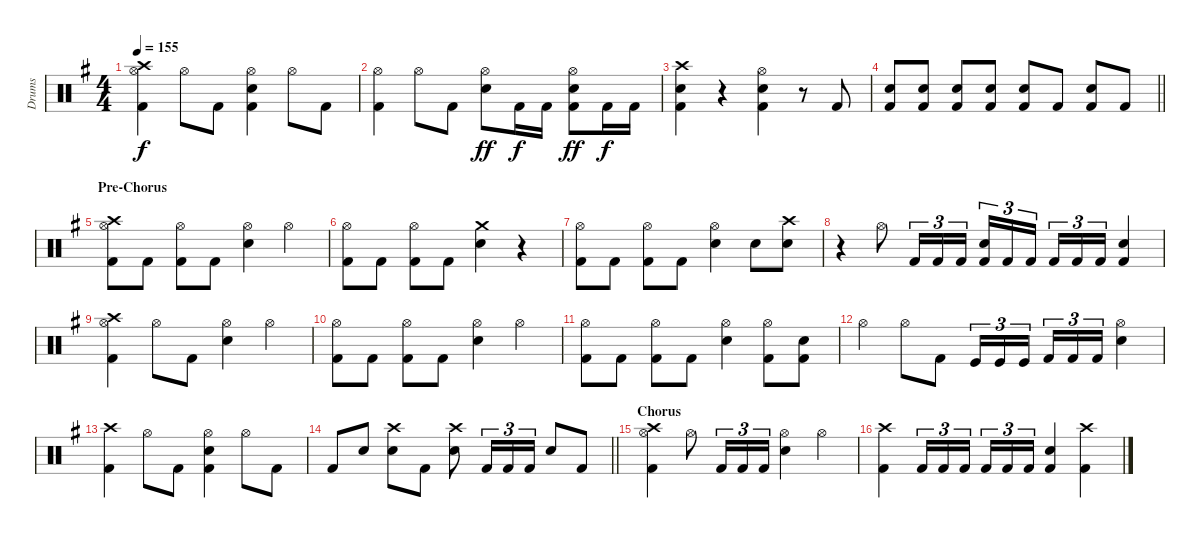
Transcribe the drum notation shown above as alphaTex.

\track ("Drums" "Drums") {instrument percussion}
\staff {score}
\articulation defaults
\ts (4 4)
\tempo 155
\clef neutral
\ks g
("Crash high (hit)" "Hi-Hat (open)" "Kick (hit) 2").4{dy f} "Hi-Hat (open)".8 "Kick (hit) 2".8 ("Hi-Hat (open)" "Snare (hit) 2" "Kick (hit) 2").4 "Hi-Hat (open)".8 "Kick (hit) 2".8 |
("Hi-Hat (open)" "Kick (hit) 2").4 "Hi-Hat (open)".8 "Kick (hit) 2".8 ("Hi-Hat (open)" "Snare (hit) 2").8{dy ff} "Kick (hit) 2".16{dy f} "Kick (hit) 2".16 ("Hi-Hat (open)" "Snare (hit) 2" "Kick (hit) 2").8{dy ff} "Kick (hit) 2".16{dy f} "Kick (hit) 2".16 |
("Crash high (hit)" "Kick (hit) 2" "Snare (hit) 2").4 r.4 ("Hi-Hat (open)" "Kick (hit) 2" "Snare (hit) 2").4 r.8 "Kick (hit) 2".8 |
\barLineRight lightlight
("Snare (hit) 2" "Kick (hit) 2").8 ("Snare (hit) 2" "Kick (hit) 2").8 ("Snare (hit) 2" "Kick (hit) 2").8 ("Snare (hit) 2" "Kick (hit) 2").8 ("Snare (hit) 2" "Kick (hit) 2").8 "Kick (hit) 2".8 ("Snare (hit) 2" "Kick (hit) 2").8 "Kick (hit) 2".8 |
\section ("" "Pre-Chorus")
("Crash high (hit)" "Hi-Hat (open)" "Kick (hit) 2").8 "Kick (hit) 2".8 ("Hi-Hat (open)" "Kick (hit) 2").8 "Kick (hit) 2".8 ("Hi-Hat (open)" "Snare (hit) 2").4 "Hi-Hat (open)".4 |
("Hi-Hat (open)" "Kick (hit) 2").8 "Kick (hit) 2".8 ("Hi-Hat (open)" "Kick (hit) 2").8 "Kick (hit) 2".8 ("Crash medium (hit)" "Snare (hit) 2").4 r.4 |
("Hi-Hat (open)" "Kick (hit) 2").8 "Kick (hit) 2".8 ("Hi-Hat (open)" "Kick (hit) 2").8 "Kick (hit) 2".8 ("Hi-Hat (open)" "Snare (hit) 2").4 "Snare (hit) 2".8 ("Crash high (hit)" "Snare (hit) 2").8 |
r.4 "Hi-Hat (open)".8 "Kick (hit) 2".16{tu (3 2)} "Kick (hit) 2".16{tu (3 2)} "Kick (hit) 2".16{tu (3 2)} ("Snare (hit) 2" "Kick (hit) 2").16{tu (3 2)} "Kick (hit) 2".16{tu (3 2)} "Kick (hit) 2".16{tu (3 2) beam splitsecondary} "Kick (hit) 2".16{tu (3 2)} "Kick (hit) 2".16{tu (3 2)} "Kick (hit) 2".16{tu (3 2)} ("Snare (hit) 2" "Kick (hit) 2").4 |
("Crash high (hit)" "Hi-Hat (open)" "Kick (hit) 2").4 "Hi-Hat (open)".8 "Kick (hit) 2".8 ("Hi-Hat (open)" "Snare (hit) 2").4 "Hi-Hat (open)".4 |
("Hi-Hat (open)" "Kick (hit) 2").8 "Kick (hit) 2".8 ("Hi-Hat (open)" "Kick (hit) 2").8 "Kick (hit) 2".8 ("Hi-Hat (open)" "Snare (hit) 2").4 "Hi-Hat (open)".4 |
("Hi-Hat (open)" "Kick (hit) 2").8 "Kick (hit) 2".8 ("Hi-Hat (open)" "Kick (hit) 2").8 "Kick (hit) 2".8 ("Hi-Hat (open)" "Snare (hit) 2").4 ("Hi-Hat (open)" "Kick (hit) 2").8 ("Snare (hit) 2" "Kick (hit) 2").8 |
"Hi-Hat (open)".4 "Hi-Hat (open)".8 "Kick (hit) 2".8 "Kick (hit)".16{tu (3 2)} "Kick (hit)".16{tu (3 2)} "Kick (hit)".16{tu (3 2) beam splitsecondary} "Kick (hit) 2".16{tu (3 2)} "Kick (hit) 2".16{tu (3 2)} "Kick (hit) 2".16{tu (3 2)} ("Hi-Hat (open)" "Snare (hit) 2").4 |
("Crash high (hit)" "Kick (hit) 2").4 "Hi-Hat (open)".8 "Kick (hit) 2".8 ("Hi-Hat (open)" "Snare (hit) 2" "Kick (hit) 2").4 "Hi-Hat (open)".8 "Kick (hit) 2".8 |
\barLineRight lightlight "Kick (hit) 2".8 "Snare (hit) 2".8
("Crash high (hit)" "Snare (hit) 2").8 "Kick (hit) 2".8 ("Crash high (hit)" "Snare (hit) 2").8 "Kick (hit) 2".16{tu (3 2)} "Kick (hit) 2".16{tu (3 2)} "Kick (hit) 2".16{tu (3 2)} "Snare (hit) 2".8 "Kick (hit) 2".8 |
\section ("" "Chorus")
("Crash high (hit)" "Hi-Hat (open)" "Kick (hit) 2").4 "Hi-Hat (open)".8 "Kick (hit) 2".16{tu (3 2)} "Kick (hit) 2".16{tu (3 2)} "Kick (hit) 2".16{tu (3 2)} ("Hi-Hat (open)" "Snare (hit) 2").4 "Hi-Hat (open)".4 |
("Crash high (hit)" "Kick (hit) 2").4 "Kick (hit) 2".16{tu (3 2)} "Kick (hit) 2".16{tu (3 2)} "Kick (hit) 2".16{tu (3 2) beam splitsecondary} "Kick (hit) 2".16{tu (3 2)} "Kick (hit) 2".16{tu (3 2)} "Kick (hit) 2".16{tu (3 2)} ("Snare (hit) 2" "Kick (hit) 2").4 ("Crash high (hit)" "Kick (hit) 2").4
